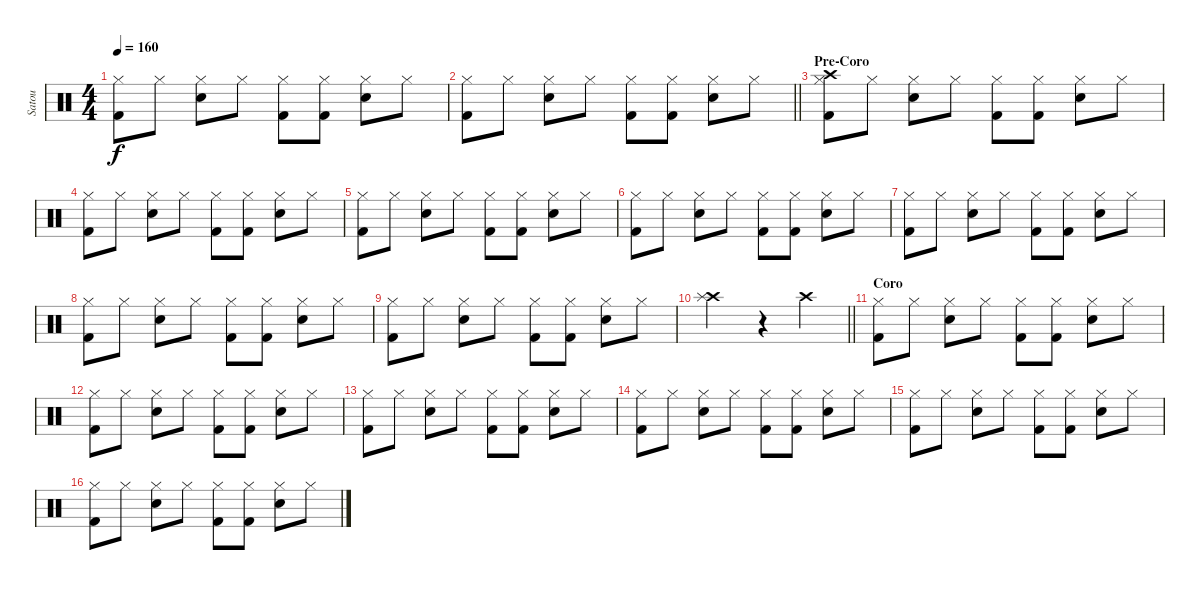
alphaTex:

\track ("Satou" "Satou") {instrument percussion}
\staff {score}
\articulation defaults
\ts (4 4)
\tempo 160
\clef neutral
\ks c
("Hi-Hat (closed)" "Kick (hit) 2").8{dy f} "Hi-Hat (closed)".8 ("Hi-Hat (closed)" "Snare (hit) 2").8 "Hi-Hat (closed)".8 ("Hi-Hat (closed)" "Kick (hit) 2").8 ("Hi-Hat (closed)" "Kick (hit) 2").8 ("Hi-Hat (closed)" "Snare (hit) 2").8 "Hi-Hat (closed)".8 |
\barLineRight lightlight
("Hi-Hat (closed)" "Kick (hit) 2").8 "Hi-Hat (closed)".8 ("Hi-Hat (closed)" "Snare (hit) 2").8 "Hi-Hat (closed)".8 ("Hi-Hat (closed)" "Kick (hit) 2").8 ("Hi-Hat (closed)" "Kick (hit) 2").8 ("Hi-Hat (closed)" "Snare (hit) 2").8 "Hi-Hat (closed)".8 |
\section ("" "Pre-Coro")
("Hi-Hat (closed)" "Kick (hit) 2" "Crash high (hit)").8 "Hi-Hat (closed)".8 ("Hi-Hat (closed)" "Snare (hit) 2").8 "Hi-Hat (closed)".8 ("Hi-Hat (closed)" "Kick (hit) 2").8 ("Hi-Hat (closed)" "Kick (hit) 2").8 ("Hi-Hat (closed)" "Snare (hit) 2").8 "Hi-Hat (closed)".8 |
("Hi-Hat (closed)" "Kick (hit) 2").8 "Hi-Hat (closed)".8 ("Hi-Hat (closed)" "Snare (hit) 2").8 "Hi-Hat (closed)".8 ("Hi-Hat (closed)" "Kick (hit) 2").8 ("Hi-Hat (closed)" "Kick (hit) 2").8 ("Hi-Hat (closed)" "Snare (hit) 2").8 "Hi-Hat (closed)".8 |
("Hi-Hat (closed)" "Kick (hit) 2").8 "Hi-Hat (closed)".8 ("Hi-Hat (closed)" "Snare (hit) 2").8 "Hi-Hat (closed)".8 ("Hi-Hat (closed)" "Kick (hit) 2").8 ("Hi-Hat (closed)" "Kick (hit) 2").8 ("Hi-Hat (closed)" "Snare (hit) 2").8 "Hi-Hat (closed)".8 |
("Hi-Hat (closed)" "Kick (hit) 2").8 "Hi-Hat (closed)".8 ("Hi-Hat (closed)" "Snare (hit) 2").8 "Hi-Hat (closed)".8 ("Hi-Hat (closed)" "Kick (hit) 2").8 ("Hi-Hat (closed)" "Kick (hit) 2").8 ("Hi-Hat (closed)" "Snare (hit) 2").8 "Hi-Hat (closed)".8 |
("Hi-Hat (closed)" "Kick (hit) 2").8 "Hi-Hat (closed)".8 ("Hi-Hat (closed)" "Snare (hit) 2").8 "Hi-Hat (closed)".8 ("Hi-Hat (closed)" "Kick (hit) 2").8 ("Hi-Hat (closed)" "Kick (hit) 2").8 ("Hi-Hat (closed)" "Snare (hit) 2").8 "Hi-Hat (closed)".8 |
("Hi-Hat (closed)" "Kick (hit) 2").8 "Hi-Hat (closed)".8 ("Hi-Hat (closed)" "Snare (hit) 2").8 "Hi-Hat (closed)".8 ("Hi-Hat (closed)" "Kick (hit) 2").8 ("Hi-Hat (closed)" "Kick (hit) 2").8 ("Hi-Hat (closed)" "Snare (hit) 2").8 "Hi-Hat (closed)".8 |
("Hi-Hat (closed)" "Kick (hit) 2").8 "Hi-Hat (closed)".8 ("Hi-Hat (closed)" "Snare (hit) 2").8 "Hi-Hat (closed)".8 ("Hi-Hat (closed)" "Kick (hit) 2").8 ("Hi-Hat (closed)" "Kick (hit) 2").8 ("Hi-Hat (closed)" "Snare (hit) 2").8 "Hi-Hat (closed)".8 |
\barLineRight lightlight
("Crash high (hit)" "Splash (hit)").2 r.4 "Crash high (hit)".4 |
\section ("" "Coro ")
("Hi-Hat (closed)" "Kick (hit) 2").8 "Hi-Hat (closed)".8 ("Hi-Hat (closed)" "Snare (hit) 2").8 "Hi-Hat (closed)".8 ("Hi-Hat (closed)" "Kick (hit) 2").8 ("Hi-Hat (closed)" "Kick (hit) 2").8 ("Hi-Hat (closed)" "Snare (hit) 2").8 "Hi-Hat (closed)".8 |
("Hi-Hat (closed)" "Kick (hit) 2").8 "Hi-Hat (closed)".8 ("Hi-Hat (closed)" "Snare (hit) 2").8 "Hi-Hat (closed)".8 ("Hi-Hat (closed)" "Kick (hit) 2").8 ("Hi-Hat (closed)" "Kick (hit) 2").8 ("Hi-Hat (closed)" "Snare (hit) 2").8 "Hi-Hat (closed)".8 |
("Hi-Hat (closed)" "Kick (hit) 2").8 "Hi-Hat (closed)".8 ("Hi-Hat (closed)" "Snare (hit) 2").8 "Hi-Hat (closed)".8 ("Hi-Hat (closed)" "Kick (hit) 2").8 ("Hi-Hat (closed)" "Kick (hit) 2").8 ("Hi-Hat (closed)" "Snare (hit) 2").8 "Hi-Hat (closed)".8 |
("Hi-Hat (closed)" "Kick (hit) 2").8 "Hi-Hat (closed)".8 ("Hi-Hat (closed)" "Snare (hit) 2").8 "Hi-Hat (closed)".8 ("Hi-Hat (closed)" "Kick (hit) 2").8 ("Hi-Hat (closed)" "Kick (hit) 2").8 ("Hi-Hat (closed)" "Snare (hit) 2").8 "Hi-Hat (closed)".8 |
("Hi-Hat (closed)" "Kick (hit) 2").8 "Hi-Hat (closed)".8 ("Hi-Hat (closed)" "Snare (hit) 2").8 "Hi-Hat (closed)".8 ("Hi-Hat (closed)" "Kick (hit) 2").8 ("Hi-Hat (closed)" "Kick (hit) 2").8 ("Hi-Hat (closed)" "Snare (hit) 2").8 "Hi-Hat (closed)".8 |
("Hi-Hat (closed)" "Kick (hit) 2").8 "Hi-Hat (closed)".8 ("Hi-Hat (closed)" "Snare (hit) 2").8 "Hi-Hat (closed)".8 ("Hi-Hat (closed)" "Kick (hit) 2").8 ("Hi-Hat (closed)" "Kick (hit) 2").8 ("Hi-Hat (closed)" "Snare (hit) 2").8 "Hi-Hat (closed)".8
